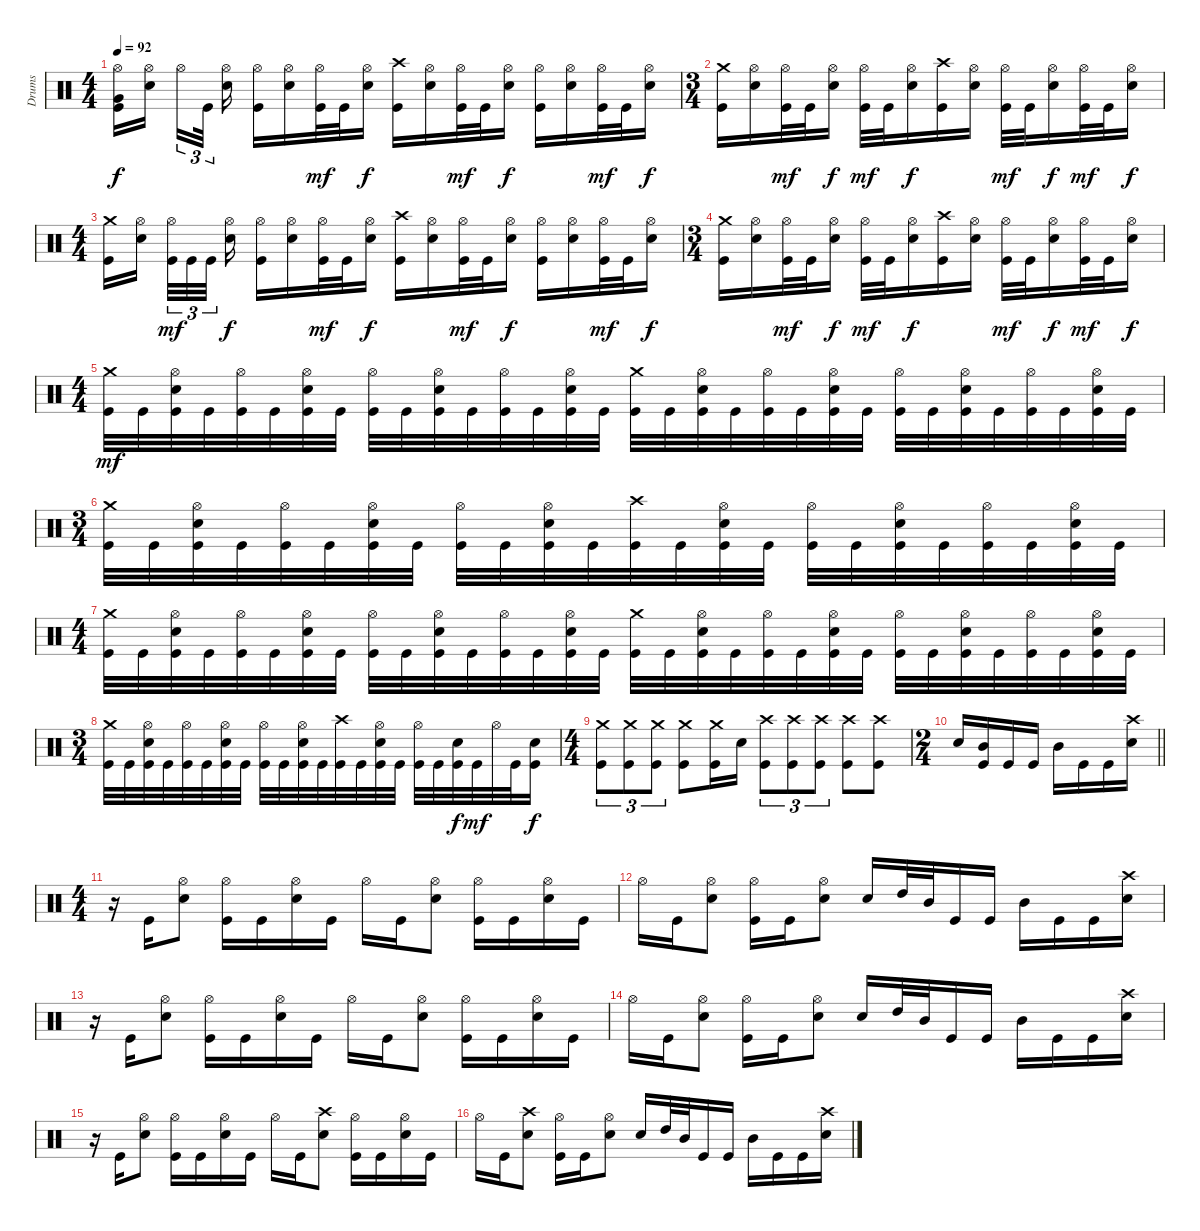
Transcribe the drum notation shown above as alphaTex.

\track ("Drums" "Drums") {instrument percussion}
\staff {score}
\articulation defaults
\ts (4 4)
\beaming (8 2 2 2 2)
\tempo 92
\clef neutral
\ks c
("Hi-Hat (open)" "Very Low Tom (hit)" "Kick (hit)").16{dy f} ("Hi-Hat (open)" "Snare (hit) 2").16 "Hi-Hat (open)".16{tu (3 2)} "Kick (hit)".32{tu (3 2)} ("Hi-Hat (open)" "Snare (hit) 2").16 ("Hi-Hat (open)" "Kick (hit)").16 ("Hi-Hat (open)" "Snare (hit) 2").16 ("Hi-Hat (open)" "Kick (hit)").32{dy mf} "Kick (hit)".32 ("Hi-Hat (open)" "Snare (hit) 2").16{dy f} ("Crash high (hit)" "Kick (hit)").16 ("Hi-Hat (open)" "Snare (hit) 2").16 ("Hi-Hat (open)" "Kick (hit)").32{dy mf} "Kick (hit)".32 ("Hi-Hat (open)" "Snare (hit) 2").16{dy f} ("Hi-Hat (open)" "Kick (hit)").16 ("Hi-Hat (open)" "Snare (hit) 2").16 ("Hi-Hat (open)" "Kick (hit)").32{dy mf} "Kick (hit)".32 ("Hi-Hat (open)" "Snare (hit) 2").16{dy f} |
\ts (3 4)
\beaming (8 2 2 2)
("Crash medium (hit)" "Kick (hit)").16 ("Hi-Hat (open)" "Snare (hit) 2").16 ("Hi-Hat (open)" "Kick (hit)").32{dy mf} "Kick (hit)".32 ("Hi-Hat (open)" "Snare (hit) 2").16{dy f} ("Hi-Hat (open)" "Kick (hit)").32{dy mf} "Kick (hit)".32 ("Hi-Hat (open)" "Snare (hit) 2").16{dy f} ("Crash high (hit)" "Kick (hit)").16 ("Hi-Hat (open)" "Snare (hit) 2").16 ("Hi-Hat (open)" "Kick (hit)").32{dy mf} "Kick (hit)".32 ("Hi-Hat (open)" "Snare (hit) 2").16{dy f} ("Hi-Hat (open)" "Kick (hit)").32{dy mf} "Kick (hit)".32 ("Hi-Hat (open)" "Snare (hit) 2").16{dy f} |
\ts (4 4)
\beaming (8 2 2 2 2)
("Crash medium (hit)" "Kick (hit)").16 ("Hi-Hat (open)" "Snare (hit) 2").16 ("Hi-Hat (open)" "Kick (hit)").32{tu (3 2) dy mf} "Kick (hit)".32{tu (3 2)} "Kick (hit)".32{tu (3 2)} ("Hi-Hat (open)" "Snare (hit) 2").16{dy f} ("Hi-Hat (open)" "Kick (hit)").16 ("Hi-Hat (open)" "Snare (hit) 2").16 ("Hi-Hat (open)" "Kick (hit)").32{dy mf} "Kick (hit)".32 ("Hi-Hat (open)" "Snare (hit) 2").16{dy f} ("Crash high (hit)" "Kick (hit)").16 ("Hi-Hat (open)" "Snare (hit) 2").16 ("Hi-Hat (open)" "Kick (hit)").32{dy mf} "Kick (hit)".32 ("Hi-Hat (open)" "Snare (hit) 2").16{dy f} ("Hi-Hat (open)" "Kick (hit)").16 ("Hi-Hat (open)" "Snare (hit) 2").16 ("Hi-Hat (open)" "Kick (hit)").32{dy mf} "Kick (hit)".32 ("Hi-Hat (open)" "Snare (hit) 2").16{dy f} |
\ts (3 4)
\beaming (8 2 2 2)
("Crash medium (hit)" "Kick (hit)").16 ("Hi-Hat (open)" "Snare (hit) 2").16 ("Hi-Hat (open)" "Kick (hit)").32{dy mf} "Kick (hit)".32 ("Hi-Hat (open)" "Snare (hit) 2").16{dy f} ("Hi-Hat (open)" "Kick (hit)").32{dy mf} "Kick (hit)".32 ("Hi-Hat (open)" "Snare (hit) 2").16{dy f} ("Crash high (hit)" "Kick (hit)").16 ("Hi-Hat (open)" "Snare (hit) 2").16 ("Hi-Hat (open)" "Kick (hit)").32{dy mf} "Kick (hit)".32 ("Hi-Hat (open)" "Snare (hit) 2").16{dy f} ("Hi-Hat (open)" "Kick (hit)").32{dy mf} "Kick (hit)".32 ("Hi-Hat (open)" "Snare (hit) 2").16{dy f} |
\ts (4 4)
\beaming (8 2 2 2 2)
("Crash medium (hit)" "Kick (hit)").32{dy mf} "Kick (hit)".32 ("Hi-Hat (open)" "Snare (hit) 2" "Kick (hit)").32 "Kick (hit)".32 ("Hi-Hat (open)" "Kick (hit)").32 "Kick (hit)".32 ("Hi-Hat (open)" "Snare (hit) 2" "Kick (hit)").32 "Kick (hit)".32 ("Hi-Hat (open)" "Kick (hit)").32 "Kick (hit)".32 ("Hi-Hat (open)" "Snare (hit) 2" "Kick (hit)").32 "Kick (hit)".32 ("Hi-Hat (open)" "Kick (hit)").32 "Kick (hit)".32 ("Hi-Hat (open)" "Snare (hit) 2" "Kick (hit)").32 "Kick (hit)".32 ("Crash medium (hit)" "Kick (hit)").32 "Kick (hit)".32 ("Hi-Hat (open)" "Snare (hit) 2" "Kick (hit)").32 "Kick (hit)".32 ("Hi-Hat (open)" "Kick (hit)").32 "Kick (hit)".32 ("Hi-Hat (open)" "Snare (hit) 2" "Kick (hit)").32 "Kick (hit)".32 ("Hi-Hat (open)" "Kick (hit)").32 "Kick (hit)".32 ("Hi-Hat (open)" "Snare (hit) 2" "Kick (hit)").32 "Kick (hit)".32 ("Hi-Hat (open)" "Kick (hit)").32 "Kick (hit)".32 ("Hi-Hat (open)" "Snare (hit) 2" "Kick (hit)").32 "Kick (hit)".32 |
\ts (3 4)
\beaming (8 2 2 2 2)
("Crash medium (hit)" "Kick (hit)").32 "Kick (hit)".32 ("Hi-Hat (open)" "Snare (hit) 2" "Kick (hit)").32 "Kick (hit)".32 ("Hi-Hat (open)" "Kick (hit)").32 "Kick (hit)".32 ("Hi-Hat (open)" "Snare (hit) 2" "Kick (hit)").32 "Kick (hit)".32 ("Hi-Hat (open)" "Kick (hit)").32 "Kick (hit)".32 ("Hi-Hat (open)" "Snare (hit) 2" "Kick (hit)").32 "Kick (hit)".32 ("Crash high (hit)" "Kick (hit)").32 "Kick (hit)".32 ("Hi-Hat (open)" "Snare (hit) 2" "Kick (hit)").32 "Kick (hit)".32 ("Hi-Hat (open)" "Kick (hit)").32 "Kick (hit)".32 ("Hi-Hat (open)" "Snare (hit) 2" "Kick (hit)").32 "Kick (hit)".32 ("Hi-Hat (open)" "Kick (hit)").32 "Kick (hit)".32 ("Hi-Hat (open)" "Snare (hit) 2" "Kick (hit)").32 "Kick (hit)".32 |
\ts (4 4)
\beaming (8 2 2 2 2)
("Crash medium (hit)" "Kick (hit)").32 "Kick (hit)".32 ("Hi-Hat (open)" "Snare (hit) 2" "Kick (hit)").32 "Kick (hit)".32 ("Hi-Hat (open)" "Kick (hit)").32 "Kick (hit)".32 ("Hi-Hat (open)" "Snare (hit) 2" "Kick (hit)").32 "Kick (hit)".32 ("Hi-Hat (open)" "Kick (hit)").32 "Kick (hit)".32 ("Hi-Hat (open)" "Snare (hit) 2" "Kick (hit)").32 "Kick (hit)".32 ("Hi-Hat (open)" "Kick (hit)").32 "Kick (hit)".32 ("Hi-Hat (open)" "Snare (hit) 2" "Kick (hit)").32 "Kick (hit)".32 ("Crash medium (hit)" "Kick (hit)").32 "Kick (hit)".32 ("Hi-Hat (open)" "Snare (hit) 2" "Kick (hit)").32 "Kick (hit)".32 ("Hi-Hat (open)" "Kick (hit)").32 "Kick (hit)".32 ("Hi-Hat (open)" "Snare (hit) 2" "Kick (hit)").32 "Kick (hit)".32 ("Hi-Hat (open)" "Kick (hit)").32 "Kick (hit)".32 ("Hi-Hat (open)" "Snare (hit) 2" "Kick (hit)").32 "Kick (hit)".32 ("Hi-Hat (open)" "Kick (hit)").32 "Kick (hit)".32 ("Hi-Hat (open)" "Snare (hit) 2" "Kick (hit)").32 "Kick (hit)".32 |
\ts (3 4)
\beaming (8 2 2 2 2)
("Crash medium (hit)" "Kick (hit)").32 "Kick (hit)".32 ("Hi-Hat (open)" "Snare (hit) 2" "Kick (hit)").32 "Kick (hit)".32 ("Hi-Hat (open)" "Kick (hit)").32 "Kick (hit)".32 ("Hi-Hat (open)" "Snare (hit) 2" "Kick (hit)").32 "Kick (hit)".32 ("Hi-Hat (open)" "Kick (hit)").32 "Kick (hit)".32 ("Hi-Hat (open)" "Snare (hit) 2" "Kick (hit)").32 "Kick (hit)".32 ("Crash high (hit)" "Kick (hit)").32 "Kick (hit)".32 ("Hi-Hat (open)" "Snare (hit) 2" "Kick (hit)").32 "Kick (hit)".32 ("Hi-Hat (open)" "Kick (hit)").32 "Kick (hit)".32 ("Snare (hit) 2" "Kick (hit)").32{dy f} "Kick (hit)".32{dy mf} "Hi-Hat (open)".32 "Kick (hit)".32 ("Snare (hit) 2" "Kick (hit)").16{dy f} |
\ts (4 4)
\beaming (8 2 2 2 2)
("Crash medium (hit)" "Kick (hit)").8{tu (3 2)} ("Crash medium (hit)" "Kick (hit)").8{tu (3 2)} ("Crash medium (hit)" "Kick (hit)").8{tu (3 2)} ("Crash medium (hit)" "Kick (hit)").8 ("Crash medium (hit)" "Kick (hit)").16 "Snare (hit) 2".16 ("Crash high (hit)" "Kick (hit)").8{tu (3 2)} ("Crash high (hit)" "Kick (hit)").8{tu (3 2)} ("Crash high (hit)" "Kick (hit)").8{tu (3 2)} ("Crash high (hit)" "Kick (hit)").8 ("Crash high (hit)" "Kick (hit)").8 |
\ts (2 4)
\beaming (8 2 2)
\barLineRight lightlight "Snare (hit) 2".16
("Mid Tom (hit)" "Kick (hit)").16 "Kick (hit)".16 "Kick (hit)".16 "Mid Tom (hit)".16 "Kick (hit)".16 "Kick (hit)".16 ("Crash high (hit)" "Snare (hit) 2").16 |
\ts (4 4)
\beaming (8 2 2 2 2)
r.16 "Kick (hit)".16 ("Hi-Hat (open)" "Snare (hit) 2").8 ("Hi-Hat (open)" "Kick (hit)").16 "Kick (hit)".16 ("Hi-Hat (open)" "Snare (hit) 2").16 "Kick (hit)".16 "Hi-Hat (open)".16 "Kick (hit)".16 ("Hi-Hat (open)" "Snare (hit) 2").8 ("Hi-Hat (open)" "Kick (hit)").16 "Kick (hit)".16 ("Hi-Hat (open)" "Snare (hit) 2").16 "Kick (hit)".16 |
"Hi-Hat (open)".16 "Kick (hit)".16 ("Hi-Hat (open)" "Snare (hit) 2").8 ("Hi-Hat (open)" "Kick (hit)").16 "Kick (hit)".16 ("Hi-Hat (open)" "Snare (hit) 2").8 "Snare (hit) 2".16 "High Tom (hit)".32 "Mid Tom (hit)".32 "Kick (hit)".16 "Kick (hit)".16 "Mid Tom (hit)".16 "Kick (hit)".16 "Kick (hit)".16 ("Crash high (hit)" "Snare (hit) 2").16 |
r.16 "Kick (hit)".16 ("Hi-Hat (open)" "Snare (hit) 2").8 ("Hi-Hat (open)" "Kick (hit)").16 "Kick (hit)".16 ("Hi-Hat (open)" "Snare (hit) 2").16 "Kick (hit)".16 "Hi-Hat (open)".16 "Kick (hit)".16 ("Hi-Hat (open)" "Snare (hit) 2").8 ("Hi-Hat (open)" "Kick (hit)").16 "Kick (hit)".16 ("Hi-Hat (open)" "Snare (hit) 2").16 "Kick (hit)".16 |
"Hi-Hat (open)".16 "Kick (hit)".16 ("Hi-Hat (open)" "Snare (hit) 2").8 ("Hi-Hat (open)" "Kick (hit)").16 "Kick (hit)".16 ("Hi-Hat (open)" "Snare (hit) 2").8 "Snare (hit) 2".16 "High Tom (hit)".32 "Mid Tom (hit)".32 "Kick (hit)".16 "Kick (hit)".16 "Mid Tom (hit)".16 "Kick (hit)".16 "Kick (hit)".16 ("Crash high (hit)" "Snare (hit) 2").16 |
r.16 "Kick (hit)".16 ("Hi-Hat (open)" "Snare (hit) 2").8 ("Hi-Hat (open)" "Kick (hit)").16 "Kick (hit)".16 ("Hi-Hat (open)" "Snare (hit) 2").16 "Kick (hit)".16 "Hi-Hat (open)".16 "Kick (hit)".16 ("Crash high (hit)" "Snare (hit) 2").8 ("Hi-Hat (open)" "Kick (hit)").16 "Kick (hit)".16 ("Hi-Hat (open)" "Snare (hit) 2").16 "Kick (hit)".16 |
"Hi-Hat (open)".16 "Kick (hit)".16 ("Crash high (hit)" "Snare (hit) 2").8 ("Hi-Hat (open)" "Kick (hit)").16 "Kick (hit)".16 ("Hi-Hat (open)" "Snare (hit) 2").8 "Snare (hit) 2".16 "High Tom (hit)".32 "Mid Tom (hit)".32 "Kick (hit)".16 "Kick (hit)".16 "Mid Tom (hit)".16 "Kick (hit)".16 "Kick (hit)".16 ("Crash high (hit)" "Snare (hit) 2").16
